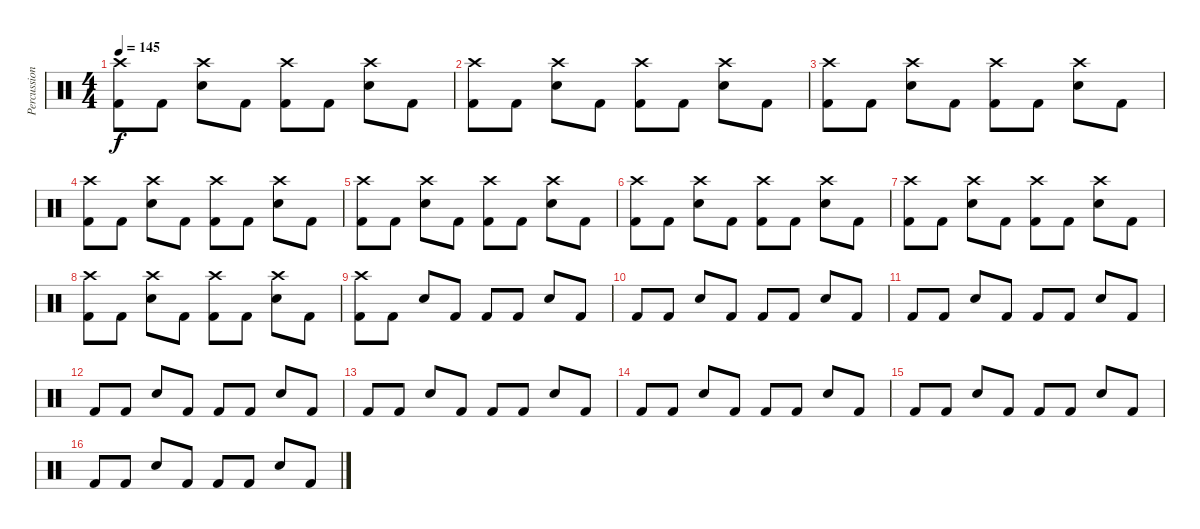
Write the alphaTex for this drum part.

\track ("Percussion" "Percussion") {instrument percussion}
\staff {score}
\articulation defaults
\ts (4 4)
\tempo 145
\clef neutral
\ks c
("Crash high (hit)" "Kick (hit) 2").8{dy f} "Kick (hit) 2".8 ("Crash high (hit)" "Electric Snare (hit)").8 "Kick (hit) 2".8 ("Crash high (hit)" "Kick (hit) 2").8 "Kick (hit) 2".8 ("Crash high (hit)" "Electric Snare (hit)").8 "Kick (hit) 2".8 |
("Crash high (hit)" "Kick (hit) 2").8 "Kick (hit) 2".8 ("Crash high (hit)" "Electric Snare (hit)").8 "Kick (hit) 2".8 ("Crash high (hit)" "Kick (hit) 2").8 "Kick (hit) 2".8 ("Crash high (hit)" "Electric Snare (hit)").8 "Kick (hit) 2".8 |
("Crash high (hit)" "Kick (hit) 2").8 "Kick (hit) 2".8 ("Crash high (hit)" "Electric Snare (hit)").8 "Kick (hit) 2".8 ("Crash high (hit)" "Kick (hit) 2").8 "Kick (hit) 2".8 ("Crash high (hit)" "Electric Snare (hit)").8 "Kick (hit) 2".8 |
("Crash high (hit)" "Kick (hit) 2").8 "Kick (hit) 2".8 ("Crash high (hit)" "Electric Snare (hit)").8 "Kick (hit) 2".8 ("Crash high (hit)" "Kick (hit) 2").8 "Kick (hit) 2".8 ("Crash high (hit)" "Electric Snare (hit)").8 "Kick (hit) 2".8 |
("Crash high (hit)" "Kick (hit) 2").8 "Kick (hit) 2".8 ("Crash high (hit)" "Electric Snare (hit)").8 "Kick (hit) 2".8 ("Crash high (hit)" "Kick (hit) 2").8 "Kick (hit) 2".8 ("Crash high (hit)" "Electric Snare (hit)").8 "Kick (hit) 2".8 |
("Crash high (hit)" "Kick (hit) 2").8 "Kick (hit) 2".8 ("Crash high (hit)" "Electric Snare (hit)").8 "Kick (hit) 2".8 ("Crash high (hit)" "Kick (hit) 2").8 "Kick (hit) 2".8 ("Crash high (hit)" "Electric Snare (hit)").8 "Kick (hit) 2".8 |
("Crash high (hit)" "Kick (hit) 2").8 "Kick (hit) 2".8 ("Crash high (hit)" "Electric Snare (hit)").8 "Kick (hit) 2".8 ("Crash high (hit)" "Kick (hit) 2").8 "Kick (hit) 2".8 ("Crash high (hit)" "Electric Snare (hit)").8 "Kick (hit) 2".8 |
("Crash high (hit)" "Kick (hit) 2").8 "Kick (hit) 2".8 ("Crash high (hit)" "Electric Snare (hit)").8 "Kick (hit) 2".8 ("Crash high (hit)" "Kick (hit) 2").8 "Kick (hit) 2".8 ("Crash high (hit)" "Electric Snare (hit)").8 "Kick (hit) 2".8 |
("Crash high (hit)" "Kick (hit) 2").8 "Kick (hit) 2".8 "Electric Snare (hit)".8 "Kick (hit) 2".8 "Kick (hit) 2".8 "Kick (hit) 2".8 "Electric Snare (hit)".8 "Kick (hit) 2".8 |
"Kick (hit) 2".8 "Kick (hit) 2".8 "Electric Snare (hit)".8 "Kick (hit) 2".8 "Kick (hit) 2".8 "Kick (hit) 2".8 "Electric Snare (hit)".8 "Kick (hit) 2".8 |
"Kick (hit) 2".8 "Kick (hit) 2".8 "Electric Snare (hit)".8 "Kick (hit) 2".8 "Kick (hit) 2".8 "Kick (hit) 2".8 "Electric Snare (hit)".8 "Kick (hit) 2".8 |
"Kick (hit) 2".8 "Kick (hit) 2".8 "Electric Snare (hit)".8 "Kick (hit) 2".8 "Kick (hit) 2".8 "Kick (hit) 2".8 "Electric Snare (hit)".8 "Kick (hit) 2".8 |
"Kick (hit) 2".8 "Kick (hit) 2".8 "Electric Snare (hit)".8 "Kick (hit) 2".8 "Kick (hit) 2".8 "Kick (hit) 2".8 "Electric Snare (hit)".8 "Kick (hit) 2".8 |
"Kick (hit) 2".8 "Kick (hit) 2".8 "Electric Snare (hit)".8 "Kick (hit) 2".8 "Kick (hit) 2".8 "Kick (hit) 2".8 "Electric Snare (hit)".8 "Kick (hit) 2".8 |
"Kick (hit) 2".8 "Kick (hit) 2".8 "Electric Snare (hit)".8 "Kick (hit) 2".8 "Kick (hit) 2".8 "Kick (hit) 2".8 "Electric Snare (hit)".8 "Kick (hit) 2".8 |
"Kick (hit) 2".8 "Kick (hit) 2".8 "Electric Snare (hit)".8 "Kick (hit) 2".8 "Kick (hit) 2".8 "Kick (hit) 2".8 "Electric Snare (hit)".8 "Kick (hit) 2".8
